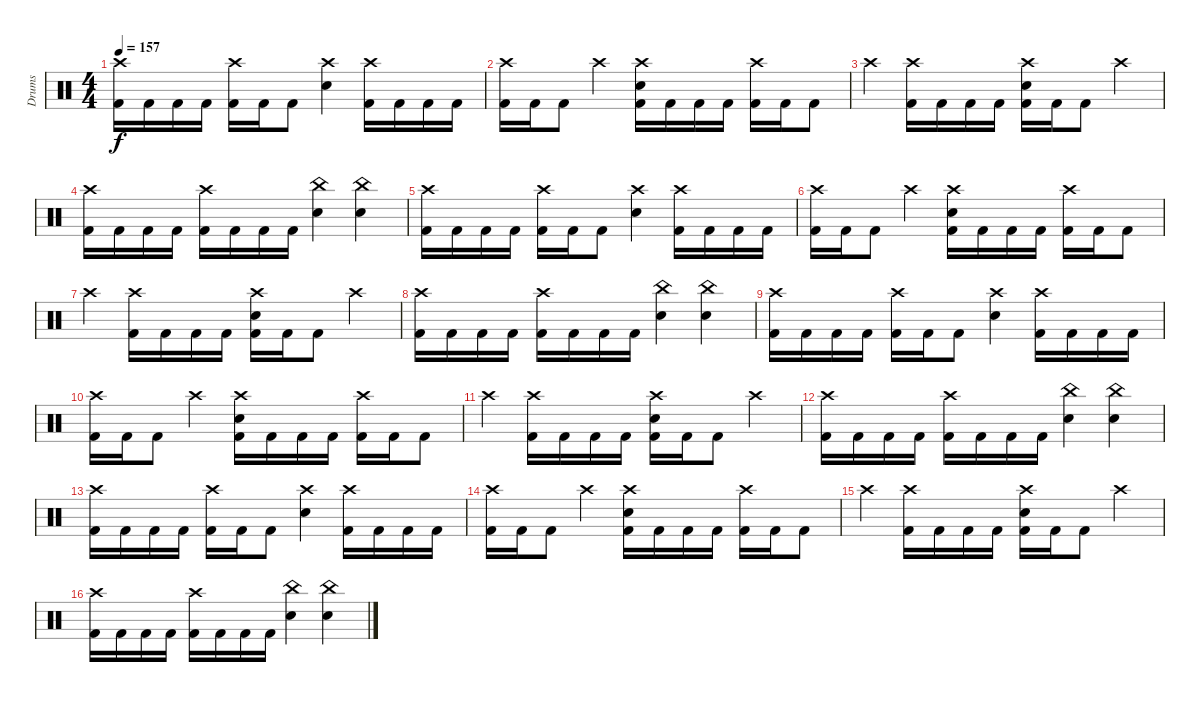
\track ("Drums" "Drums") {instrument percussion}
\staff {score}
\articulation defaults
\ts (4 4)
\tempo 157
\clef neutral
\ks c
("Crash high (hit)" "Kick (hit) 2").16{dy f} "Kick (hit) 2".16 "Kick (hit) 2".16 "Kick (hit) 2".16 ("Crash high (hit)" "Kick (hit) 2").16 "Kick (hit) 2".16 "Kick (hit) 2".8 ("Crash high (hit)" "Electric Snare (hit)").4 ("Crash high (hit)" "Kick (hit) 2").16 "Kick (hit) 2".16 "Kick (hit) 2".16 "Kick (hit) 2".16 |
("Crash high (hit)" "Kick (hit) 2").16 "Kick (hit) 2".16 "Kick (hit) 2".8 "Crash high (hit)".4 ("Crash high (hit)" "Electric Snare (hit)" "Kick (hit) 2").16 "Kick (hit) 2".16 "Kick (hit) 2".16 "Kick (hit) 2".16 ("Crash high (hit)" "Kick (hit) 2").16 "Kick (hit) 2".16 "Kick (hit) 2".8 |
"Crash high (hit)".4 ("Crash high (hit)" "Kick (hit) 2").16 "Kick (hit) 2".16 "Kick (hit) 2".16 "Kick (hit) 2".16 ("Crash high (hit)" "Electric Snare (hit)" "Kick (hit) 2").16 "Kick (hit) 2".16 "Kick (hit) 2".8 "Crash high (hit)".4 |
("Crash high (hit)" "Kick (hit) 2").16 "Kick (hit) 2".16 "Kick (hit) 2".16 "Kick (hit) 2".16 ("Crash high (hit)" "Kick (hit) 2").16 "Kick (hit) 2".16 "Kick (hit) 2".16 "Kick (hit) 2".16 ("China (hit)" "Electric Snare (hit)").4 ("China (hit)" "Electric Snare (hit)").4 |
("Crash high (hit)" "Kick (hit) 2").16 "Kick (hit) 2".16 "Kick (hit) 2".16 "Kick (hit) 2".16 ("Crash high (hit)" "Kick (hit) 2").16 "Kick (hit) 2".16 "Kick (hit) 2".8 ("Crash high (hit)" "Electric Snare (hit)").4 ("Crash high (hit)" "Kick (hit) 2").16 "Kick (hit) 2".16 "Kick (hit) 2".16 "Kick (hit) 2".16 |
("Crash high (hit)" "Kick (hit) 2").16 "Kick (hit) 2".16 "Kick (hit) 2".8 "Crash high (hit)".4 ("Crash high (hit)" "Electric Snare (hit)" "Kick (hit) 2").16 "Kick (hit) 2".16 "Kick (hit) 2".16 "Kick (hit) 2".16 ("Crash high (hit)" "Kick (hit) 2").16 "Kick (hit) 2".16 "Kick (hit) 2".8 |
"Crash high (hit)".4 ("Crash high (hit)" "Kick (hit) 2").16 "Kick (hit) 2".16 "Kick (hit) 2".16 "Kick (hit) 2".16 ("Crash high (hit)" "Electric Snare (hit)" "Kick (hit) 2").16 "Kick (hit) 2".16 "Kick (hit) 2".8 "Crash high (hit)".4 |
("Crash high (hit)" "Kick (hit) 2").16 "Kick (hit) 2".16 "Kick (hit) 2".16 "Kick (hit) 2".16 ("Crash high (hit)" "Kick (hit) 2").16 "Kick (hit) 2".16 "Kick (hit) 2".16 "Kick (hit) 2".16 ("China (hit)" "Electric Snare (hit)").4 ("China (hit)" "Electric Snare (hit)").4 |
("Crash high (hit)" "Kick (hit) 2").16 "Kick (hit) 2".16 "Kick (hit) 2".16 "Kick (hit) 2".16 ("Crash high (hit)" "Kick (hit) 2").16 "Kick (hit) 2".16 "Kick (hit) 2".8 ("Crash high (hit)" "Electric Snare (hit)").4 ("Crash high (hit)" "Kick (hit) 2").16 "Kick (hit) 2".16 "Kick (hit) 2".16 "Kick (hit) 2".16 |
("Crash high (hit)" "Kick (hit) 2").16 "Kick (hit) 2".16 "Kick (hit) 2".8 "Crash high (hit)".4 ("Crash high (hit)" "Electric Snare (hit)" "Kick (hit) 2").16 "Kick (hit) 2".16 "Kick (hit) 2".16 "Kick (hit) 2".16 ("Crash high (hit)" "Kick (hit) 2").16 "Kick (hit) 2".16 "Kick (hit) 2".8 |
"Crash high (hit)".4 ("Crash high (hit)" "Kick (hit) 2").16 "Kick (hit) 2".16 "Kick (hit) 2".16 "Kick (hit) 2".16 ("Crash high (hit)" "Electric Snare (hit)" "Kick (hit) 2").16 "Kick (hit) 2".16 "Kick (hit) 2".8 "Crash high (hit)".4 |
("Crash high (hit)" "Kick (hit) 2").16 "Kick (hit) 2".16 "Kick (hit) 2".16 "Kick (hit) 2".16 ("Crash high (hit)" "Kick (hit) 2").16 "Kick (hit) 2".16 "Kick (hit) 2".16 "Kick (hit) 2".16 ("China (hit)" "Electric Snare (hit)").4 ("China (hit)" "Electric Snare (hit)").4 |
("Crash high (hit)" "Kick (hit) 2").16 "Kick (hit) 2".16 "Kick (hit) 2".16 "Kick (hit) 2".16 ("Crash high (hit)" "Kick (hit) 2").16 "Kick (hit) 2".16 "Kick (hit) 2".8 ("Crash high (hit)" "Electric Snare (hit)").4 ("Crash high (hit)" "Kick (hit) 2").16 "Kick (hit) 2".16 "Kick (hit) 2".16 "Kick (hit) 2".16 |
("Crash high (hit)" "Kick (hit) 2").16 "Kick (hit) 2".16 "Kick (hit) 2".8 "Crash high (hit)".4 ("Crash high (hit)" "Electric Snare (hit)" "Kick (hit) 2").16 "Kick (hit) 2".16 "Kick (hit) 2".16 "Kick (hit) 2".16 ("Crash high (hit)" "Kick (hit) 2").16 "Kick (hit) 2".16 "Kick (hit) 2".8 |
"Crash high (hit)".4 ("Crash high (hit)" "Kick (hit) 2").16 "Kick (hit) 2".16 "Kick (hit) 2".16 "Kick (hit) 2".16 ("Crash high (hit)" "Electric Snare (hit)" "Kick (hit) 2").16 "Kick (hit) 2".16 "Kick (hit) 2".8 "Crash high (hit)".4 |
("Crash high (hit)" "Kick (hit) 2").16 "Kick (hit) 2".16 "Kick (hit) 2".16 "Kick (hit) 2".16 ("Crash high (hit)" "Kick (hit) 2").16 "Kick (hit) 2".16 "Kick (hit) 2".16 "Kick (hit) 2".16 ("China (hit)" "Electric Snare (hit)").4 ("China (hit)" "Electric Snare (hit)").4
